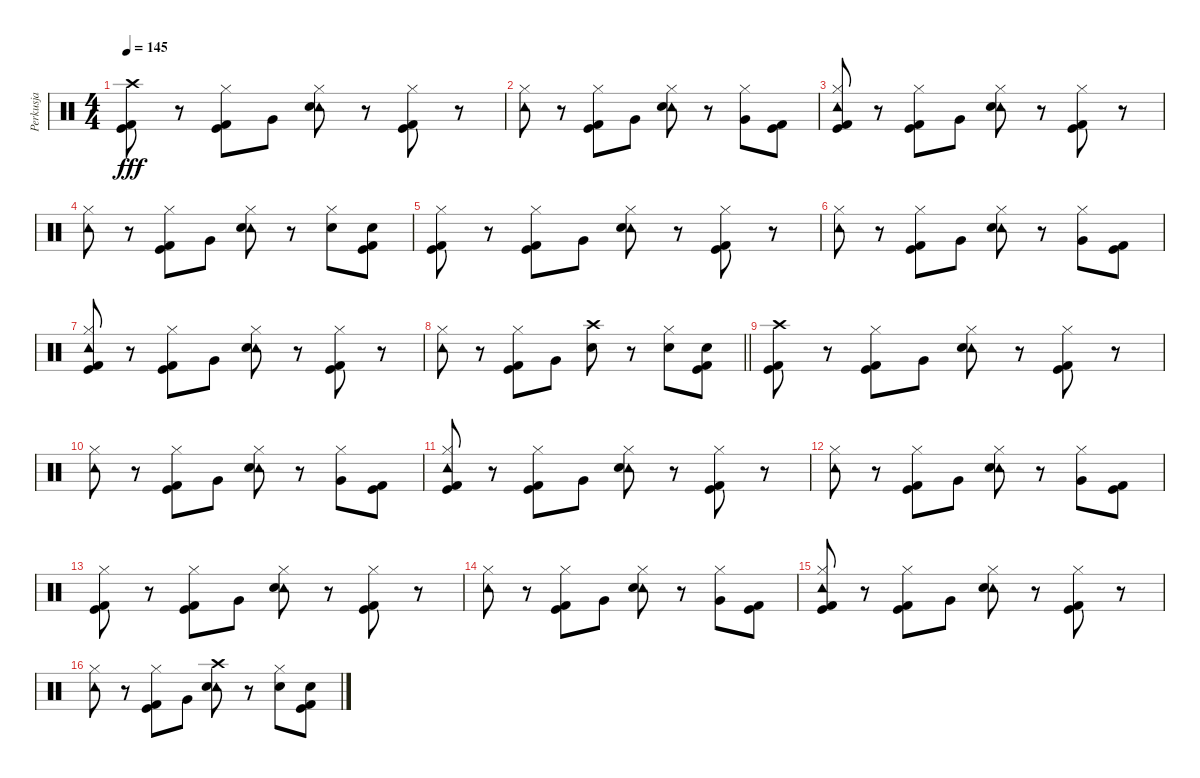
\track ("Perkusja" "Perkusja") {instrument percussion}
\staff {score}
\articulation defaults
\ts (4 4)
\tempo 145
\clef neutral
\ks c
("Crash high (hit)" "Kick (hit)" "Kick (hit) 2").8{dy fff} r.8 ("Hi-Hat (closed)" "Kick (hit)" "Kick (hit) 2").8 "Very Low Tom (hit)".8 ("Hi-Hat (closed)" "Tambourine (hit)" "Electric Snare (hit)").8 r.8 ("Hi-Hat (closed)" "Kick (hit)" "Kick (hit) 2").8 r.8 |
("Hi-Hat (closed)" "Tambourine (hit)").8 r.8 ("Hi-Hat (closed)" "Kick (hit)" "Kick (hit) 2").8 "Very Low Tom (hit)".8 ("Hi-Hat (closed)" "Tambourine (hit)" "Electric Snare (hit)").8 r.8 ("Hi-Hat (closed)" "Very Low Tom (hit)").8 ("Kick (hit)" "Kick (hit) 2").8 |
("Hi-Hat (closed)" "Tambourine (hit)" "Kick (hit)" "Kick (hit) 2").8 r.8 ("Hi-Hat (closed)" "Kick (hit)" "Kick (hit) 2").8 "Very Low Tom (hit)".8 ("Hi-Hat (closed)" "Tambourine (hit)" "Electric Snare (hit)").8 r.8 ("Hi-Hat (closed)" "Kick (hit)" "Kick (hit) 2").8 r.8 |
("Hi-Hat (closed)" "Tambourine (hit)").8 r.8 ("Hi-Hat (closed)" "Kick (hit)" "Kick (hit) 2").8 "Very Low Tom (hit)".8 ("Hi-Hat (closed)" "Tambourine (hit)" "Electric Snare (hit)").8 r.8 ("Hi-Hat (closed)" "Electric Snare (hit)").8 ("Electric Snare (hit)" "Kick (hit)" "Kick (hit) 2").8 |
("Hi-Hat (closed)" "Kick (hit)" "Kick (hit) 2").8 r.8 ("Hi-Hat (closed)" "Kick (hit)" "Kick (hit) 2").8 "Very Low Tom (hit)".8 ("Hi-Hat (closed)" "Tambourine (hit)" "Electric Snare (hit)").8 r.8 ("Hi-Hat (closed)" "Kick (hit)" "Kick (hit) 2").8 r.8 |
("Hi-Hat (closed)" "Tambourine (hit)").8 r.8 ("Hi-Hat (closed)" "Kick (hit)" "Kick (hit) 2").8 "Very Low Tom (hit)".8 ("Hi-Hat (closed)" "Tambourine (hit)" "Electric Snare (hit)").8 r.8 ("Hi-Hat (closed)" "Very Low Tom (hit)").8 ("Kick (hit)" "Kick (hit) 2").8 |
("Hi-Hat (closed)" "Tambourine (hit)" "Kick (hit)" "Kick (hit) 2").8 r.8 ("Hi-Hat (closed)" "Kick (hit)" "Kick (hit) 2").8 "Very Low Tom (hit)".8 ("Hi-Hat (closed)" "Tambourine (hit)" "Electric Snare (hit)").8 r.8 ("Hi-Hat (closed)" "Kick (hit)" "Kick (hit) 2").8 r.8 |
\barLineRight lightlight
("Hi-Hat (closed)" "Tambourine (hit)").8 r.8 ("Hi-Hat (closed)" "Kick (hit)" "Kick (hit) 2").8 "Very Low Tom (hit)".8 ("Crash high (hit)" "Electric Snare (hit)").8 r.8 ("Hi-Hat (closed)" "Electric Snare (hit)").8 ("Electric Snare (hit)" "Kick (hit)" "Kick (hit) 2").8 |
("Crash high (hit)" "Kick (hit)" "Kick (hit) 2").8 r.8 ("Hi-Hat (closed)" "Kick (hit)" "Kick (hit) 2").8 "Very Low Tom (hit)".8 ("Hi-Hat (closed)" "Tambourine (hit)" "Electric Snare (hit)").8 r.8 ("Hi-Hat (closed)" "Kick (hit)" "Kick (hit) 2").8 r.8 |
("Hi-Hat (closed)" "Tambourine (hit)").8 r.8 ("Hi-Hat (closed)" "Kick (hit)" "Kick (hit) 2").8 "Very Low Tom (hit)".8 ("Hi-Hat (closed)" "Tambourine (hit)" "Electric Snare (hit)").8 r.8 ("Hi-Hat (closed)" "Very Low Tom (hit)").8 ("Kick (hit)" "Kick (hit) 2").8 |
("Hi-Hat (closed)" "Tambourine (hit)" "Kick (hit)" "Kick (hit) 2").8 r.8 ("Hi-Hat (closed)" "Kick (hit)" "Kick (hit) 2").8 "Very Low Tom (hit)".8 ("Hi-Hat (closed)" "Tambourine (hit)" "Electric Snare (hit)").8 r.8 ("Hi-Hat (closed)" "Kick (hit)" "Kick (hit) 2").8 r.8 |
("Hi-Hat (closed)" "Tambourine (hit)").8 r.8 ("Hi-Hat (closed)" "Kick (hit)" "Kick (hit) 2").8 "Very Low Tom (hit)".8 ("Hi-Hat (closed)" "Tambourine (hit)" "Electric Snare (hit)").8 r.8 ("Hi-Hat (closed)" "Very Low Tom (hit)").8 ("Kick (hit)" "Kick (hit) 2").8 |
("Hi-Hat (closed)" "Kick (hit)" "Kick (hit) 2").8 r.8 ("Hi-Hat (closed)" "Kick (hit)" "Kick (hit) 2").8 "Very Low Tom (hit)".8 ("Hi-Hat (closed)" "Tambourine (hit)" "Electric Snare (hit)").8 r.8 ("Hi-Hat (closed)" "Kick (hit)" "Kick (hit) 2").8 r.8 |
("Hi-Hat (closed)" "Tambourine (hit)").8 r.8 ("Hi-Hat (closed)" "Kick (hit)" "Kick (hit) 2").8 "Very Low Tom (hit)".8 ("Hi-Hat (closed)" "Tambourine (hit)" "Electric Snare (hit)").8 r.8 ("Hi-Hat (closed)" "Very Low Tom (hit)").8 ("Kick (hit)" "Kick (hit) 2").8 |
("Hi-Hat (closed)" "Tambourine (hit)" "Kick (hit)" "Kick (hit) 2").8 r.8 ("Hi-Hat (closed)" "Kick (hit)" "Kick (hit) 2").8 "Very Low Tom (hit)".8 ("Hi-Hat (closed)" "Tambourine (hit)" "Electric Snare (hit)").8 r.8 ("Hi-Hat (closed)" "Kick (hit)" "Kick (hit) 2").8 r.8 |
("Hi-Hat (closed)" "Tambourine (hit)").8 r.8 ("Hi-Hat (closed)" "Kick (hit)" "Kick (hit) 2").8 "Very Low Tom (hit)".8 ("Crash high (hit)" "Tambourine (hit)" "Electric Snare (hit)").8 r.8 ("Hi-Hat (closed)" "Electric Snare (hit)").8 ("Electric Snare (hit)" "Kick (hit)" "Kick (hit) 2").8
